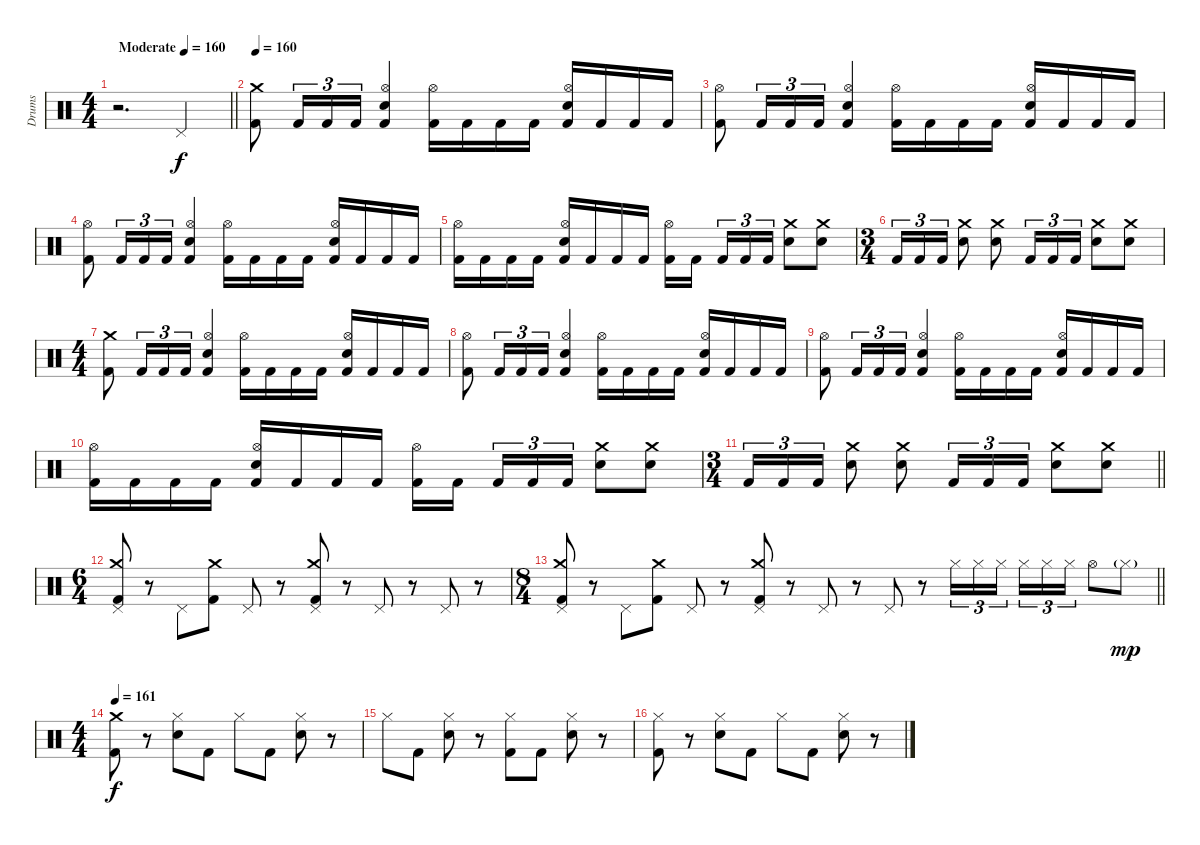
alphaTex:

\track ("Drums" "Drums") {instrument percussion}
\staff {score}
\articulation defaults
\ts (4 4)
\tempo (160 "Moderate")
\clef neutral
\barLineRight lightlight
\ks c
r.2{d dy f} "Pedal Hi-Hat (hit)".4 |
\section ("" "")
\tempo 160
("Crash medium (hit)" "Kick (hit) 2").8 "Kick (hit) 2".16{tu (3 2)} "Kick (hit) 2".16{tu (3 2)} "Kick (hit) 2".16{tu (3 2)} ("Hi-Hat (open)" "Electric Snare (hit)" "Kick (hit) 2").4 ("Hi-Hat (open)" "Kick (hit) 2").16 "Kick (hit) 2".16 "Kick (hit) 2".16 "Kick (hit) 2".16 ("Hi-Hat (open)" "Electric Snare (hit)" "Kick (hit) 2").16 "Kick (hit) 2".16 "Kick (hit) 2".16 "Kick (hit) 2".16 |
("Hi-Hat (open)" "Kick (hit) 2").8 "Kick (hit) 2".16{tu (3 2)} "Kick (hit) 2".16{tu (3 2)} "Kick (hit) 2".16{tu (3 2)} ("Hi-Hat (open)" "Electric Snare (hit)" "Kick (hit) 2").4 ("Hi-Hat (open)" "Kick (hit) 2").16 "Kick (hit) 2".16 "Kick (hit) 2".16 "Kick (hit) 2".16 ("Hi-Hat (open)" "Electric Snare (hit)" "Kick (hit) 2").16 "Kick (hit) 2".16 "Kick (hit) 2".16 "Kick (hit) 2".16 |
("Hi-Hat (open)" "Kick (hit) 2").8 "Kick (hit) 2".16{tu (3 2)} "Kick (hit) 2".16{tu (3 2)} "Kick (hit) 2".16{tu (3 2)} ("Hi-Hat (open)" "Electric Snare (hit)" "Kick (hit) 2").4 ("Hi-Hat (open)" "Kick (hit) 2").16 "Kick (hit) 2".16 "Kick (hit) 2".16 "Kick (hit) 2".16 ("Hi-Hat (open)" "Electric Snare (hit)" "Kick (hit) 2").16 "Kick (hit) 2".16 "Kick (hit) 2".16 "Kick (hit) 2".16 |
("Hi-Hat (open)" "Kick (hit) 2").16 "Kick (hit) 2".16 "Kick (hit) 2".16 "Kick (hit) 2".16 ("Hi-Hat (open)" "Electric Snare (hit)" "Kick (hit) 2").16 "Kick (hit) 2".16 "Kick (hit) 2".16 "Kick (hit) 2".16 ("Hi-Hat (open)" "Kick (hit) 2").16 "Kick (hit) 2".16{beam splitsecondary} "Kick (hit) 2".16{tu (3 2)} "Kick (hit) 2".16{tu (3 2)} "Kick (hit) 2".16{tu (3 2)} ("Crash medium (hit)" "Electric Snare (hit)").8 ("Crash medium (hit)" "Electric Snare (hit)").8 |
\ts (3 4)
"Kick (hit) 2".16{tu (3 2)} "Kick (hit) 2".16{tu (3 2)} "Kick (hit) 2".16{tu (3 2)} ("Crash medium (hit)" "Electric Snare (hit)").8 ("Crash medium (hit)" "Electric Snare (hit)").8 "Kick (hit) 2".16{tu (3 2)} "Kick (hit) 2".16{tu (3 2)} "Kick (hit) 2".16{tu (3 2)} ("Crash medium (hit)" "Electric Snare (hit)").8 ("Crash medium (hit)" "Electric Snare (hit)").8 |
\ts (4 4)
("Crash medium (hit)" "Kick (hit) 2").8 "Kick (hit) 2".16{tu (3 2)} "Kick (hit) 2".16{tu (3 2)} "Kick (hit) 2".16{tu (3 2)} ("Hi-Hat (open)" "Electric Snare (hit)" "Kick (hit) 2").4 ("Hi-Hat (open)" "Kick (hit) 2").16 "Kick (hit) 2".16 "Kick (hit) 2".16 "Kick (hit) 2".16 ("Hi-Hat (open)" "Electric Snare (hit)" "Kick (hit) 2").16 "Kick (hit) 2".16 "Kick (hit) 2".16 "Kick (hit) 2".16 |
("Hi-Hat (open)" "Kick (hit) 2").8 "Kick (hit) 2".16{tu (3 2)} "Kick (hit) 2".16{tu (3 2)} "Kick (hit) 2".16{tu (3 2)} ("Hi-Hat (open)" "Electric Snare (hit)" "Kick (hit) 2").4 ("Hi-Hat (open)" "Kick (hit) 2").16 "Kick (hit) 2".16 "Kick (hit) 2".16 "Kick (hit) 2".16 ("Hi-Hat (open)" "Electric Snare (hit)" "Kick (hit) 2").16 "Kick (hit) 2".16 "Kick (hit) 2".16 "Kick (hit) 2".16 |
("Hi-Hat (open)" "Kick (hit) 2").8 "Kick (hit) 2".16{tu (3 2)} "Kick (hit) 2".16{tu (3 2)} "Kick (hit) 2".16{tu (3 2)} ("Hi-Hat (open)" "Electric Snare (hit)" "Kick (hit) 2").4 ("Hi-Hat (open)" "Kick (hit) 2").16 "Kick (hit) 2".16 "Kick (hit) 2".16 "Kick (hit) 2".16 ("Hi-Hat (open)" "Electric Snare (hit)" "Kick (hit) 2").16 "Kick (hit) 2".16 "Kick (hit) 2".16 "Kick (hit) 2".16 |
("Hi-Hat (open)" "Kick (hit) 2").16 "Kick (hit) 2".16 "Kick (hit) 2".16 "Kick (hit) 2".16 ("Hi-Hat (open)" "Electric Snare (hit)" "Kick (hit) 2").16 "Kick (hit) 2".16 "Kick (hit) 2".16 "Kick (hit) 2".16 ("Hi-Hat (open)" "Kick (hit) 2").16 "Kick (hit) 2".16{beam splitsecondary} "Kick (hit) 2".16{tu (3 2)} "Kick (hit) 2".16{tu (3 2)} "Kick (hit) 2".16{tu (3 2)} ("Crash medium (hit)" "Electric Snare (hit)").8 ("Crash medium (hit)" "Electric Snare (hit)").8 |
\ts (3 4)
\barLineRight lightlight "Kick (hit) 2".16{tu (3 2)} "Kick (hit) 2".16{tu (3 2)} "Kick (hit) 2".16{tu (3 2)}
("Crash medium (hit)" "Electric Snare (hit)").8 ("Crash medium (hit)" "Electric Snare (hit)").8 "Kick (hit) 2".16{tu (3 2)} "Kick (hit) 2".16{tu (3 2)} "Kick (hit) 2".16{tu (3 2)} ("Crash medium (hit)" "Electric Snare (hit)").8 ("Crash medium (hit)" "Electric Snare (hit)").8 |
\ts (6 4)
\section ("" "")
("Crash medium (hit)" "Pedal Hi-Hat (hit)" "Kick (hit) 2").8 r.8 "Pedal Hi-Hat (hit)".8 ("Crash medium (hit)" "Kick (hit) 2").8 "Pedal Hi-Hat (hit)".8 r.8 ("Crash medium (hit)" "Pedal Hi-Hat (hit)" "Kick (hit) 2").8 r.8 "Pedal Hi-Hat (hit)".8 r.8 "Pedal Hi-Hat (hit)".8 r.8 |
\ts (8 4)
\barLineRight lightlight
("Crash medium (hit)" "Pedal Hi-Hat (hit)" "Kick (hit) 2").8 r.8 "Pedal Hi-Hat (hit)".8 ("Crash medium (hit)" "Kick (hit) 2").8 "Pedal Hi-Hat (hit)".8 r.8 ("Crash medium (hit)" "Pedal Hi-Hat (hit)" "Kick (hit) 2").8 r.8 "Pedal Hi-Hat (hit)".8 r.8 "Pedal Hi-Hat (hit)".8 r.8 "Hi-Hat (closed)".16{tu (3 2)} "Hi-Hat (closed)".16{tu (3 2)} "Hi-Hat (closed)".16{tu (3 2) beam splitsecondary} "Hi-Hat (closed)".16{tu (3 2)} "Hi-Hat (closed)".16{tu (3 2)} "Hi-Hat (closed)".16{tu (3 2)} "Hi-Hat (open)".8 "Hi-Hat (closed)"{g}.8{dy mp} |
\ts (4 4)
\section ("" "")
\tempo 161
("Crash medium (hit)" "Kick (hit) 2").8{dy f} r.8 ("Hi-Hat (closed)" "Electric Snare (hit)").8 "Kick (hit) 2".8 "Hi-Hat (closed)".8 "Kick (hit) 2".8 ("Hi-Hat (closed)" "Electric Snare (hit)").8 r.8 |
"Hi-Hat (closed)".8 "Kick (hit) 2".8 ("Hi-Hat (closed)" "Electric Snare (hit)").8 r.8 ("Hi-Hat (closed)" "Kick (hit) 2").8 "Kick (hit) 2".8 ("Hi-Hat (closed)" "Electric Snare (hit)").8 r.8 |
("Hi-Hat (closed)" "Kick (hit) 2").8 r.8 ("Hi-Hat (closed)" "Electric Snare (hit)").8 "Kick (hit) 2".8 "Hi-Hat (closed)".8 "Kick (hit) 2".8 ("Hi-Hat (closed)" "Electric Snare (hit)").8 r.8
